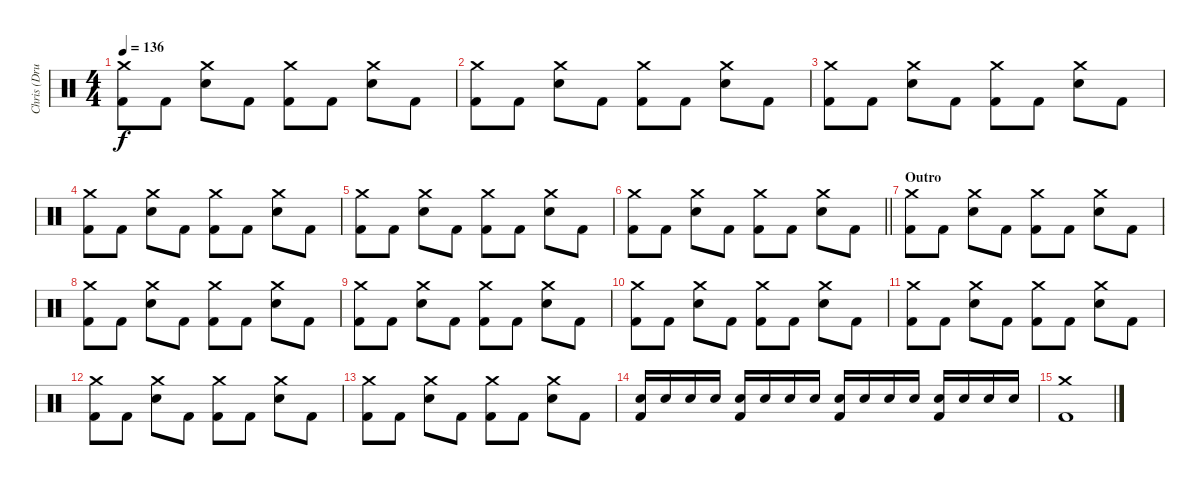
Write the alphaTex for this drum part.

\track ("Chris (Drums)" "Chris (Dru") {instrument percussion}
\staff {score}
\articulation defaults
\ts (4 4)
\tempo 136
\clef neutral
\ks c
("Crash medium (hit)" "Kick (hit) 2").8{dy f} "Kick (hit) 2".8 ("Crash medium (hit)" "Snare (hit) 2").8 "Kick (hit) 2".8 ("Crash medium (hit)" "Kick (hit) 2").8 "Kick (hit) 2".8 ("Crash medium (hit)" "Snare (hit) 2").8 "Kick (hit) 2".8 |
("Crash medium (hit)" "Kick (hit) 2").8 "Kick (hit) 2".8 ("Crash medium (hit)" "Snare (hit) 2").8 "Kick (hit) 2".8 ("Crash medium (hit)" "Kick (hit) 2").8 "Kick (hit) 2".8 ("Crash medium (hit)" "Snare (hit) 2").8 "Kick (hit) 2".8 |
("Crash medium (hit)" "Kick (hit) 2").8 "Kick (hit) 2".8 ("Crash medium (hit)" "Snare (hit) 2").8 "Kick (hit) 2".8 ("Crash medium (hit)" "Kick (hit) 2").8 "Kick (hit) 2".8 ("Crash medium (hit)" "Snare (hit) 2").8 "Kick (hit) 2".8 |
("Crash medium (hit)" "Kick (hit) 2").8 "Kick (hit) 2".8 ("Crash medium (hit)" "Snare (hit) 2").8 "Kick (hit) 2".8 ("Crash medium (hit)" "Kick (hit) 2").8 "Kick (hit) 2".8 ("Crash medium (hit)" "Snare (hit) 2").8 "Kick (hit) 2".8 |
("Crash medium (hit)" "Kick (hit) 2").8 "Kick (hit) 2".8 ("Crash medium (hit)" "Snare (hit) 2").8 "Kick (hit) 2".8 ("Crash medium (hit)" "Kick (hit) 2").8 "Kick (hit) 2".8 ("Crash medium (hit)" "Snare (hit) 2").8 "Kick (hit) 2".8 |
\barLineRight lightlight
("Crash medium (hit)" "Kick (hit) 2").8 "Kick (hit) 2".8 ("Crash medium (hit)" "Snare (hit) 2").8 "Kick (hit) 2".8 ("Crash medium (hit)" "Kick (hit) 2").8 "Kick (hit) 2".8 ("Crash medium (hit)" "Snare (hit) 2").8 "Kick (hit) 2".8 |
\section ("" "Outro")
("Crash medium (hit)" "Kick (hit) 2").8 "Kick (hit) 2".8 ("Crash medium (hit)" "Snare (hit) 2").8 "Kick (hit) 2".8 ("Crash medium (hit)" "Kick (hit) 2").8 "Kick (hit) 2".8 ("Crash medium (hit)" "Snare (hit) 2").8 "Kick (hit) 2".8 |
("Crash medium (hit)" "Kick (hit) 2").8 "Kick (hit) 2".8 ("Crash medium (hit)" "Snare (hit) 2").8 "Kick (hit) 2".8 ("Crash medium (hit)" "Kick (hit) 2").8 "Kick (hit) 2".8 ("Crash medium (hit)" "Snare (hit) 2").8 "Kick (hit) 2".8 |
("Crash medium (hit)" "Kick (hit) 2").8 "Kick (hit) 2".8 ("Crash medium (hit)" "Snare (hit) 2").8 "Kick (hit) 2".8 ("Crash medium (hit)" "Kick (hit) 2").8 "Kick (hit) 2".8 ("Crash medium (hit)" "Snare (hit) 2").8 "Kick (hit) 2".8 |
("Crash medium (hit)" "Kick (hit) 2").8 "Kick (hit) 2".8 ("Crash medium (hit)" "Snare (hit) 2").8 "Kick (hit) 2".8 ("Crash medium (hit)" "Kick (hit) 2").8 "Kick (hit) 2".8 ("Crash medium (hit)" "Snare (hit) 2").8 "Kick (hit) 2".8 |
("Crash medium (hit)" "Kick (hit) 2").8 "Kick (hit) 2".8 ("Crash medium (hit)" "Snare (hit) 2").8 "Kick (hit) 2".8 ("Crash medium (hit)" "Kick (hit) 2").8 "Kick (hit) 2".8 ("Crash medium (hit)" "Snare (hit) 2").8 "Kick (hit) 2".8 |
("Crash medium (hit)" "Kick (hit) 2").8 "Kick (hit) 2".8 ("Crash medium (hit)" "Snare (hit) 2").8 "Kick (hit) 2".8 ("Crash medium (hit)" "Kick (hit) 2").8 "Kick (hit) 2".8 ("Crash medium (hit)" "Snare (hit) 2").8 "Kick (hit) 2".8 |
("Crash medium (hit)" "Kick (hit) 2").8 "Kick (hit) 2".8 ("Crash medium (hit)" "Snare (hit) 2").8 "Kick (hit) 2".8 ("Crash medium (hit)" "Kick (hit) 2").8 "Kick (hit) 2".8 ("Crash medium (hit)" "Snare (hit) 2").8 "Kick (hit) 2".8 |
("Snare (hit) 2" "Kick (hit) 2").16 "Snare (hit) 2".16 "Snare (hit) 2".16 "Snare (hit) 2".16 ("Snare (hit) 2" "Kick (hit) 2").16 "Snare (hit) 2".16 "Snare (hit) 2".16 "Snare (hit) 2".16 ("Snare (hit) 2" "Kick (hit) 2").16 "Snare (hit) 2".16 "Snare (hit) 2".16 "Snare (hit) 2".16 ("Snare (hit) 2" "Kick (hit) 2").16 "Snare (hit) 2".16 "Snare (hit) 2".16 "Snare (hit) 2".16 |
("Crash medium (hit)" "Kick (hit) 2").1
